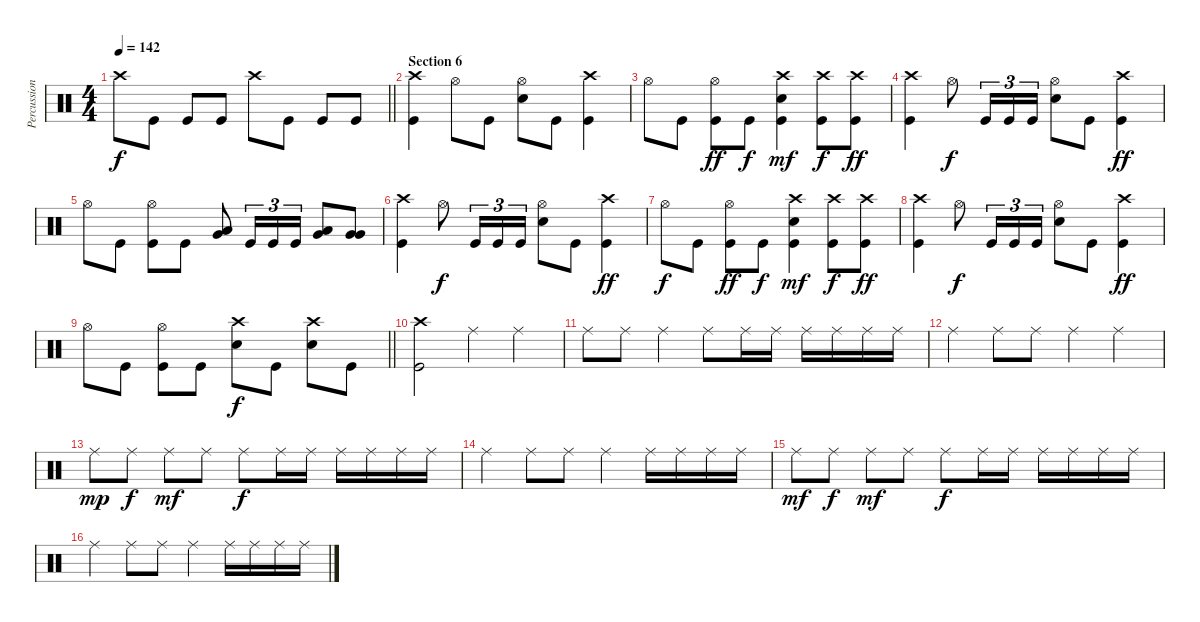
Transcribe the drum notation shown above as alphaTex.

\track ("Percussion" "Percussion") {instrument percussion}
\staff {score}
\articulation defaults
\ts (4 4)
\tempo 142
\clef neutral
\barLineRight lightlight
\ks c "Crash high (hit)".8{dy f} "Kick (hit)".8 "Kick (hit)".8 "Kick (hit)".8 "Crash high (hit)".8 "Kick (hit)".8 "Kick (hit)".8 "Kick (hit)".8
|
\section ("" "Section 6")
("Crash high (hit)" "Kick (hit)").4 "Hi-Hat (open)".8 "Kick (hit)".8 ("Snare (hit) 2" "Hi-Hat (open)").8 "Kick (hit)".8 ("Kick (hit)" "Crash high (hit)").4 |
"Hi-Hat (open)".8 "Kick (hit)".8 ("Hi-Hat (open)" "Kick (hit)").8{dy ff} "Kick (hit)".8{dy f} ("Snare (hit) 2" "Crash high (hit)" "Kick (hit)").4{dy mf} ("Crash high (hit)" "Kick (hit)").8{dy f} ("Crash high (hit)" "Kick (hit)").8{dy ff} |
("Crash high (hit)" "Kick (hit)").4 "Hi-Hat (open)".8{dy f} "Kick (hit)".16{tu (3 2)} "Kick (hit)".16{tu (3 2)} "Kick (hit)".16{tu (3 2)} ("Snare (hit) 2" "Hi-Hat (open)").8 "Kick (hit)".8 ("Kick (hit)" "Crash high (hit)").4{dy ff} |
"Hi-Hat (open)".8 "Kick (hit)".8 ("Hi-Hat (open)" "Kick (hit)").8 "Kick (hit)".8 ("Low Tom (hit)" "Very Low Tom (hit)").8 "Kick (hit)".16{tu (3 2)} "Kick (hit)".16{tu (3 2)} "Kick (hit)".16{tu (3 2)} ("Very Low Tom (hit)" "Low Floor Tom (hit)").8 ("Very Low Tom (hit)" "Very Low Tom (hit)").8 |
("Crash high (hit)" "Kick (hit)").4 "Hi-Hat (open)".8{dy f} "Kick (hit)".16{tu (3 2)} "Kick (hit)".16{tu (3 2)} "Kick (hit)".16{tu (3 2)} ("Snare (hit) 2" "Hi-Hat (open)").8 "Kick (hit)".8 ("Kick (hit)" "Crash high (hit)").4{dy ff} |
"Hi-Hat (open)".8{dy f} "Kick (hit)".8 ("Hi-Hat (open)" "Kick (hit)").8{dy ff} "Kick (hit)".8{dy f} ("Snare (hit) 2" "Crash high (hit)" "Kick (hit)").4{dy mf} ("Crash high (hit)" "Kick (hit)").8{dy f} ("Crash high (hit)" "Kick (hit)").8{dy ff} |
("Crash high (hit)" "Kick (hit)").4 "Hi-Hat (open)".8{dy f} "Kick (hit)".16{tu (3 2)} "Kick (hit)".16{tu (3 2)} "Kick (hit)".16{tu (3 2)} ("Snare (hit) 2" "Hi-Hat (open)").8 "Kick (hit)".8 ("Kick (hit)" "Crash high (hit)").4{dy ff} |
\barLineRight lightlight "Hi-Hat (open)".8 "Kick (hit)".8
("Hi-Hat (open)" "Kick (hit)").8 "Kick (hit)".8 ("Crash high (hit)" "Snare (hit) 2").8{dy f} "Kick (hit)".8 ("Crash high (hit)" "Snare (hit) 2").8 "Kick (hit)".8 |
("Crash high (hit)" "Kick (hit)").2 "Ride (middle)".4 "Ride (middle)".4 |
"Ride (middle)".8 "Ride (middle)".8 "Ride (middle)".4 "Ride (middle)".8 "Ride (middle)".16 "Ride (middle)".16 "Ride (middle)".16 "Ride (middle)".16 "Ride (middle)".16 "Ride (middle)".16 |
"Ride (middle)".4 "Ride (middle)".8 "Ride (middle)".8 "Ride (middle)".4 "Ride (middle)".4 |
"Ride (middle)".8{dy mp} "Ride (middle)".8{dy f} "Ride (middle)".8{dy mf} "Ride (middle)".8 "Ride (middle)".8{dy f} "Ride (middle)".16 "Ride (middle)".16 "Ride (middle)".16 "Ride (middle)".16 "Ride (middle)".16 "Ride (middle)".16 |
"Ride (middle)".4 "Ride (middle)".8 "Ride (middle)".8 "Ride (middle)".4 "Ride (middle)".16 "Ride (middle)".16 "Ride (middle)".16 "Ride (middle)".16 |
"Ride (middle)".8{dy mf} "Ride (middle)".8{dy f} "Ride (middle)".8{dy mf} "Ride (middle)".8 "Ride (middle)".8{dy f} "Ride (middle)".16 "Ride (middle)".16 "Ride (middle)".16 "Ride (middle)".16 "Ride (middle)".16 "Ride (middle)".16 |
"Ride (middle)".4 "Ride (middle)".8 "Ride (middle)".8 "Ride (middle)".4 "Ride (middle)".16 "Ride (middle)".16 "Ride (middle)".16 "Ride (middle)".16
